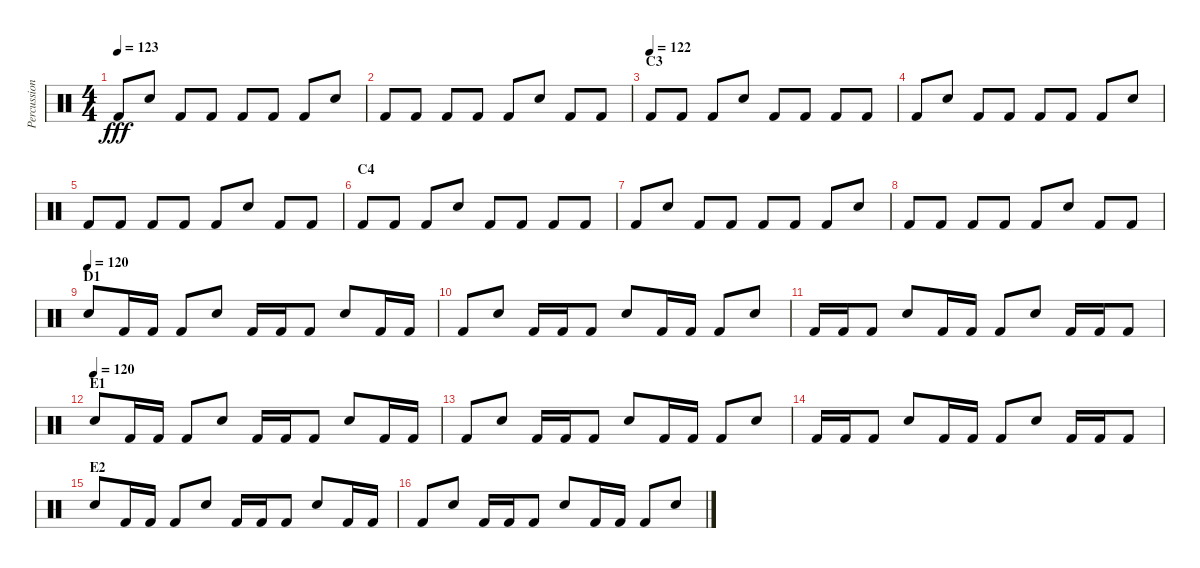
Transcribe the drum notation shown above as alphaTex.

\track ("Percussion" "Percussion") {instrument percussion}
\staff {score}
\articulation defaults
\ts (4 4)
\tempo 123
\clef neutral
\ks c "Kick (hit) 2".8{dy fff} "Electric Snare (hit)".8 "Kick (hit) 2".8 "Kick (hit) 2".8 "Kick (hit) 2".8 "Kick (hit) 2".8 "Kick (hit) 2".8 "Electric Snare (hit)".8
|
"Kick (hit) 2".8 "Kick (hit) 2".8 "Kick (hit) 2".8 "Kick (hit) 2".8 "Kick (hit) 2".8 "Electric Snare (hit)".8 "Kick (hit) 2".8 "Kick (hit) 2".8 |
\section ("" "C3")
\tempo (122)
"Kick (hit) 2".8 "Kick (hit) 2".8 "Kick (hit) 2".8 "Electric Snare (hit)".8 "Kick (hit) 2".8 "Kick (hit) 2".8 "Kick (hit) 2".8 "Kick (hit) 2".8 |
"Kick (hit) 2".8 "Electric Snare (hit)".8 "Kick (hit) 2".8 "Kick (hit) 2".8 "Kick (hit) 2".8 "Kick (hit) 2".8 "Kick (hit) 2".8 "Electric Snare (hit)".8 |
"Kick (hit) 2".8 "Kick (hit) 2".8 "Kick (hit) 2".8 "Kick (hit) 2".8 "Kick (hit) 2".8 "Electric Snare (hit)".8 "Kick (hit) 2".8 "Kick (hit) 2".8 |
\section ("" "C4")
"Kick (hit) 2".8 "Kick (hit) 2".8 "Kick (hit) 2".8 "Electric Snare (hit)".8 "Kick (hit) 2".8 "Kick (hit) 2".8 "Kick (hit) 2".8 "Kick (hit) 2".8 |
"Kick (hit) 2".8 "Electric Snare (hit)".8 "Kick (hit) 2".8 "Kick (hit) 2".8 "Kick (hit) 2".8 "Kick (hit) 2".8 "Kick (hit) 2".8 "Electric Snare (hit)".8 |
"Kick (hit) 2".8 "Kick (hit) 2".8 "Kick (hit) 2".8 "Kick (hit) 2".8 "Kick (hit) 2".8 "Electric Snare (hit)".8 "Kick (hit) 2".8 "Kick (hit) 2".8 |
\section ("" "D1")
\tempo (120)
"Electric Snare (hit)".8 "Kick (hit) 2".16 "Kick (hit) 2".16 "Kick (hit) 2".8 "Electric Snare (hit)".8 "Kick (hit) 2".16 "Kick (hit) 2".16 "Kick (hit) 2".8 "Electric Snare (hit)".8 "Kick (hit) 2".16 "Kick (hit) 2".16 |
"Kick (hit) 2".8 "Electric Snare (hit)".8 "Kick (hit) 2".16 "Kick (hit) 2".16 "Kick (hit) 2".8 "Electric Snare (hit)".8 "Kick (hit) 2".16 "Kick (hit) 2".16 "Kick (hit) 2".8 "Electric Snare (hit)".8 |
"Kick (hit) 2".16 "Kick (hit) 2".16 "Kick (hit) 2".8 "Electric Snare (hit)".8 "Kick (hit) 2".16 "Kick (hit) 2".16 "Kick (hit) 2".8 "Electric Snare (hit)".8 "Kick (hit) 2".16 "Kick (hit) 2".16 "Kick (hit) 2".8 |
\section ("" "E1")
\tempo (120)
"Electric Snare (hit)".8 "Kick (hit) 2".16 "Kick (hit) 2".16 "Kick (hit) 2".8 "Electric Snare (hit)".8 "Kick (hit) 2".16 "Kick (hit) 2".16 "Kick (hit) 2".8 "Electric Snare (hit)".8 "Kick (hit) 2".16 "Kick (hit) 2".16 |
"Kick (hit) 2".8 "Electric Snare (hit)".8 "Kick (hit) 2".16 "Kick (hit) 2".16 "Kick (hit) 2".8 "Electric Snare (hit)".8 "Kick (hit) 2".16 "Kick (hit) 2".16 "Kick (hit) 2".8 "Electric Snare (hit)".8 |
"Kick (hit) 2".16 "Kick (hit) 2".16 "Kick (hit) 2".8 "Electric Snare (hit)".8 "Kick (hit) 2".16 "Kick (hit) 2".16 "Kick (hit) 2".8 "Electric Snare (hit)".8 "Kick (hit) 2".16 "Kick (hit) 2".16 "Kick (hit) 2".8 |
\section ("" "E2")
"Electric Snare (hit)".8 "Kick (hit) 2".16 "Kick (hit) 2".16 "Kick (hit) 2".8 "Electric Snare (hit)".8 "Kick (hit) 2".16 "Kick (hit) 2".16 "Kick (hit) 2".8 "Electric Snare (hit)".8 "Kick (hit) 2".16 "Kick (hit) 2".16 |
"Kick (hit) 2".8 "Electric Snare (hit)".8 "Kick (hit) 2".16 "Kick (hit) 2".16 "Kick (hit) 2".8 "Electric Snare (hit)".8 "Kick (hit) 2".16 "Kick (hit) 2".16 "Kick (hit) 2".8 "Electric Snare (hit)".8
